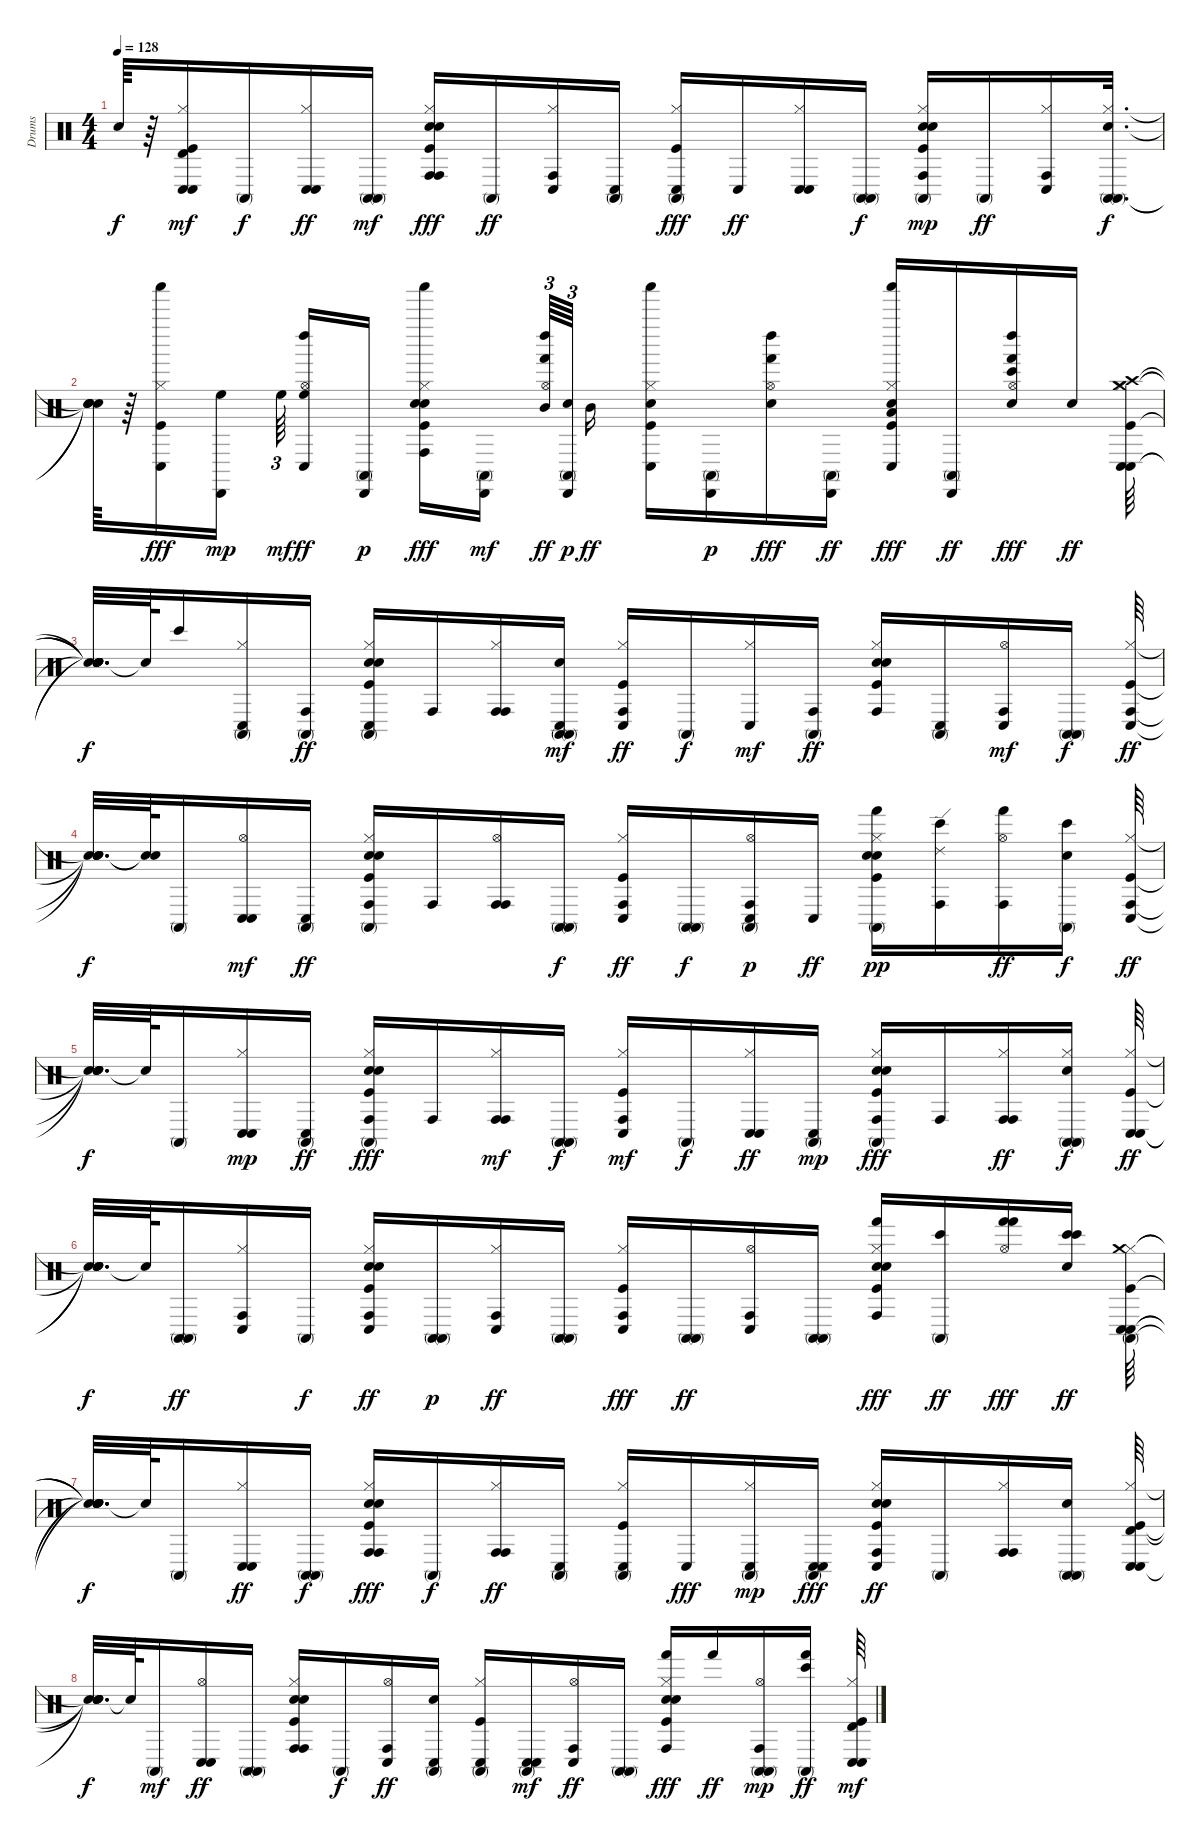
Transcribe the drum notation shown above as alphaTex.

\track ("Drums" "Drums") {instrument percussion}
\staff {score}
\articulation defaults
\ts (4 4)
\tempo 128
\clef neutral
\ks c "Snare (hit)"{t}.64{dy f}
r.64 ("Kick (hit)" "Hi-Hat (closed)" "Conga low (hit)" "Conga low (hit)" "Timbale high (hit)").16{dy mf} "Conga high (mute)".16{dy f} ("Hi-Hat (closed)" "Conga low (hit)" "Conga low (hit)").16{dy ff} ("Conga high (mute)" "Conga high (mute)").16{dy mf} ("Kick (hit)" "Snare (hit) 2" "Hand Clap (hit)" "Hi-Hat (closed)" "Conga high (hit)" "Conga high (hit)").16{dy fff} "Conga high (mute)".16{dy ff} ("Hi-Hat (closed)" "Conga low (hit)" "Conga high (hit)").16 ("Conga low (hit)" "Conga high (mute)").16 ("Kick (hit)" "Hi-Hat (closed)" "Conga high (mute)" "Conga low (hit)").16{dy fff} "Conga low (hit)".16{dy ff} ("Hi-Hat (closed)" "Conga low (hit)" "Conga low (hit)").16 ("Conga high (mute)" "Conga high (mute)").16{dy f} ("Kick (hit)" "Snare (hit) 2" "Hand Clap (hit)" "Hi-Hat (closed)" "Conga high (hit)" "Conga high (mute)").16{dy mp} "Conga high (mute)".16{dy ff} ("Hi-Hat (closed)" "Conga low (hit)" "Conga high (hit)").16 ("Snare (hit) 2" "Hi-Hat (closed)" "Conga high (mute)" "Conga high (mute)").32{d dy f} |
("Snare (hit)"{t} "Snare (hit)"{t} "Snare (hit)"{t} "Snare (hit)"{t}).64 r.64 ("Kick (hit)" "Hi-Hat (closed)" "Shaker (hit)" "Conga low (hit)").16{dy fff} ("Cabasa (hit)" "High Floor Tom (hit)").16{dy mp} "High Floor Tom (hit)".64{tu (3 2) dy mf} ("Hi-Hat (open)" "Left Maraca (hit)" "High Floor Tom (hit)" "Conga low (hit)").16{dy ff} ("Cabasa (hit)" "Conga high (mute)").16{dy p} ("Kick (hit)" "Snare (hit) 2" "Hand Clap (hit)" "Hi-Hat (closed)" "Shaker (hit)" "Conga high (hit)").16{dy fff} ("Cabasa (hit)" "Conga high (mute)").16{dy mf} ("Hi-Hat (open)" "Left Maraca (hit)" "Hand (hit)" "Mid Tom (hit)").64{tu (3 2) dy ff} ("Snare (hit) 2" "Cabasa (hit)" "Conga high (mute)").64{tu (3 2) dy p} "Mid Tom (hit)".16{dy ff} ("Kick (hit)" "Snare (hit) 2" "Hi-Hat (closed)" "Shaker (hit)" "Conga low (hit)").16 ("Cabasa (hit)" "Conga high (mute)").16{dy p} ("Snare (hit) 2" "Hi-Hat (open)" "Left Maraca (hit)" "Hand (hit)").16{dy fff} ("Cabasa (hit)" "Conga high (mute)").16{dy ff} ("Low Tom (hit)" "Kick (hit)" "Hand Clap (hit)" "Hi-Hat (closed)" "Shaker (hit)" "Conga low (hit)").16{dy fff} ("Cabasa (hit)" "Conga high (mute)").16{dy ff} ("Snare (hit) 2" "Hi-Hat (open)" "Left Maraca (hit)" "Hand (hit)" "Bongo High (hit)").16{dy fff} "Snare (hit) 2".16{dy ff} ("Kick (hit)" "Hi-Hat (closed)" "Crash high (hit)" "Crash medium (hit)" "Conga low (hit)" "Conga low (hit)").64 |
("Snare (hit)"{t} "Snare (hit)"{t} "Snare (hit)"{t} "Snare (hit)"{t} "Snare (hit)"{t} "Snare (hit)"{t}).32{d dy f} "Snare (hit)"{t}.64 "Bongo High (hit)".16 ("Hi-Hat (closed)" "Conga high (mute)" "Conga low (hit)").16 ("Conga high (hit)" "Conga high (mute)").16{dy ff} ("Kick (hit)" "Snare (hit) 2" "Hand Clap (hit)" "Hi-Hat (closed)" "Conga high (mute)" "Conga low (hit)").16 "Conga high (hit)".16 ("Hi-Hat (closed)" "Conga high (hit)" "Conga high (hit)").16 ("Snare (hit) 2" "Conga high (mute)" "Conga high (mute)" "Conga low (hit)").16{dy mf} ("Kick (hit)" "Hi-Hat (closed)" "Conga high (hit)" "Conga low (hit)").16{dy ff} "Conga high (mute)".16{dy f} ("Hi-Hat (closed)" "Conga low (hit)").16{dy mf} ("Conga high (hit)" "Conga high (mute)").16{dy ff} ("Kick (hit)" "Snare (hit) 2" "Hand Clap (hit)" "Hi-Hat (closed)" "Conga high (hit)").16 ("Conga high (mute)" "Conga low (hit)").16 ("Hi-Hat (open)" "Conga low (hit)" "Conga high (hit)").16{dy mf} ("Conga high (mute)" "Conga high (mute)").16{dy f} ("Kick (hit)" "Hi-Hat (closed)" "Conga high (hit)" "Conga low (hit)").64{dy ff} |
("Snare (hit)"{t} "Snare (hit)"{t} "Snare (hit)"{t} "Snare (hit)"{t}).32{d dy f} ("Snare (hit)"{t} "Snare (hit)"{t}).64 "Conga high (mute)".16 ("Hi-Hat (open)" "Conga low (hit)" "Conga low (hit)").16{dy mf} ("Conga low (hit)" "Conga high (mute)").16{dy ff} ("Kick (hit)" "Snare (hit) 2" "Hand Clap (hit)" "Hi-Hat (closed)" "Conga high (mute)" "Conga high (hit)").16 "Conga high (hit)".16 ("Hi-Hat (open)" "Conga high (hit)" "Conga high (hit)").16 ("Conga high (mute)" "Conga high (mute)").16{dy f} ("Kick (hit)" "Hi-Hat (closed)" "Conga high (hit)" "Conga low (hit)").16{dy ff} ("Conga high (mute)" "Conga high (mute)").16{dy f} ("Hi-Hat (open)" "Conga low (hit)" "Conga high (hit)" "Conga high (mute)").16{dy p} "Conga low (hit)".16{dy ff} ("Kick (hit)" "Snare (hit) 2" "Hand Clap (hit)" "Hi-Hat (closed)" "Conga high (mute)" "Hand (hit)").16{dy pp} ("Conga high (hit)" "Bongo High (hit)" "Ride (edge) 2").16 ("Hi-Hat (open)" "Conga high (hit)" "Hand (hit)").16{dy ff} ("Snare (hit) 2" "Conga high (mute)" "Bongo High (hit)").16{dy f} ("Kick (hit)" "Hi-Hat (closed)" "Conga high (hit)" "Conga low (hit)").64{dy ff} |
("Snare (hit)"{t} "Snare (hit)"{t} "Snare (hit)"{t} "Snare (hit)"{t}).32{d dy f} "Snare (hit)"{t}.64 "Conga high (mute)".16 ("Hi-Hat (closed)" "Conga low (hit)" "Conga low (hit)").16{dy mp} ("Conga low (hit)" "Conga high (mute)").16{dy ff} ("Kick (hit)" "Snare (hit) 2" "Hand Clap (hit)" "Hi-Hat (closed)" "Conga high (mute)" "Conga high (hit)").16{dy fff} "Conga high (hit)".16 ("Hi-Hat (closed)" "Conga high (hit)" "Conga high (hit)").16{dy mf} ("Conga high (mute)" "Conga high (mute)").16{dy f} ("Kick (hit)" "Hi-Hat (closed)" "Conga high (hit)" "Conga low (hit)").16{dy mf} "Conga high (mute)".16{dy f} ("Hi-Hat (closed)" "Conga low (hit)" "Conga low (hit)").16{dy ff} ("Conga low (hit)" "Conga high (mute)").16{dy mp} ("Kick (hit)" "Snare (hit) 2" "Hand Clap (hit)" "Hi-Hat (closed)" "Conga high (mute)" "Conga high (hit)").16{dy fff} "Conga high (hit)".16 ("Hi-Hat (closed)" "Conga high (hit)" "Conga high (hit)").16{dy ff} ("Snare (hit) 2" "Hi-Hat (closed)" "Conga high (mute)" "Conga high (mute)").16{dy f} ("Kick (hit)" "Hi-Hat (closed)" "Conga low (hit)" "Conga low (hit)").64{dy ff} |
("Snare (hit)"{t} "Snare (hit)"{t} "Snare (hit)"{t} "Snare (hit)"{t}).32{d dy f} "Snare (hit)"{t}.64 ("Conga high (mute)" "Conga high (mute)").16{dy ff} ("Hi-Hat (closed)" "Conga high (hit)" "Conga low (hit)").16 "Conga high (mute)".16{dy f} ("Kick (hit)" "Snare (hit) 2" "Hand Clap (hit)" "Hi-Hat (closed)" "Conga low (hit)" "Conga high (hit)").16{dy ff} ("Conga high (mute)" "Conga high (mute)").16{dy p} ("Hi-Hat (closed)" "Conga high (hit)" "Conga low (hit)").16{dy ff} ("Conga high (mute)" "Conga high (mute)").16 ("Kick (hit)" "Hi-Hat (closed)" "Conga low (hit)" "Conga high (hit)").16{dy fff} ("Conga high (mute)" "Conga high (mute)").16{dy ff} ("Hi-Hat (open)" "Conga high (hit)" "Conga low (hit)").16 ("Conga high (mute)" "Conga high (mute)").16 ("Kick (hit)" "Snare (hit) 2" "Hand Clap (hit)" "Hi-Hat (closed)" "Hand (hit)" "Conga high (hit)").16{dy fff} ("Bongo High (hit)" "Conga high (mute)").16{dy ff} ("Hi-Hat (open)" "Hand (hit)" "Hand (hit)").16{dy fff} ("Snare (hit) 2" "Bongo High (hit)" "Bongo High (hit)").16{dy ff} ("Kick (hit)" "Hi-Hat (closed)" "Crash medium (hit)" "Conga low (hit)" "Conga low (hit)" "Conga high (mute)").64 |
("Snare (hit)"{t} "Snare (hit)"{t} "Snare (hit)"{t} "Snare (hit)"{t} "Snare (hit)"{t} "Snare (hit)"{t}).32{d dy f} "Snare (hit)"{t}.64 "Conga high (mute)".16 ("Hi-Hat (closed)" "Conga low (hit)" "Conga low (hit)").16{dy ff} ("Conga high (mute)" "Conga high (mute)").16{dy f} ("Kick (hit)" "Snare (hit) 2" "Hand Clap (hit)" "Hi-Hat (closed)" "Conga high (hit)" "Conga high (hit)").16{dy fff} "Conga high (mute)".16{dy f} ("Hi-Hat (closed)" "Conga high (hit)" "Conga high (hit)").16{dy ff} ("Conga low (hit)" "Conga high (mute)").16 ("Kick (hit)" "Hi-Hat (closed)" "Conga high (mute)" "Conga low (hit)").16 "Conga low (hit)".16{dy fff} ("Hi-Hat (closed)" "Conga high (mute)" "Conga low (hit)").16{dy mp} ("Conga low (hit)" "Conga high (mute)" "Conga low (hit)").16{dy fff} ("Kick (hit)" "Snare (hit) 2" "Hand Clap (hit)" "Hi-Hat (closed)" "Conga low (hit)" "Conga high (hit)").16{dy ff} "Conga high (mute)".16 ("Hi-Hat (closed)" "Conga high (hit)" "Conga high (hit)").16 ("Snare (hit) 2" "Conga high (mute)" "Conga high (mute)").16 ("Kick (hit)" "Hi-Hat (closed)" "Conga low (hit)" "Timbale high (hit)" "Conga low (hit)").64 |
("Snare (hit)"{t} "Snare (hit)"{t} "Snare (hit)"{t} "Snare (hit)"{t}).32{d dy f} "Snare (hit)"{t}.64 "Conga high (mute)".16{dy mf} ("Hi-Hat (open)" "Conga low (hit)" "Conga low (hit)").16{dy ff} ("Conga high (mute)" "Conga high (mute)").16 ("Kick (hit)" "Snare (hit) 2" "Hand Clap (hit)" "Hi-Hat (closed)" "Conga high (hit)" "Conga high (hit)").16 "Conga high (mute)".16{dy f} ("Hi-Hat (open)" "Conga low (hit)" "Conga high (hit)").16{dy ff} ("Snare (hit) 2" "Conga low (hit)" "Conga high (mute)").16 ("Kick (hit)" "Hi-Hat (closed)" "Conga high (mute)" "Conga low (hit)").16 ("Conga low (hit)" "Conga high (mute)" "Conga low (hit)").16{dy mf} ("Hi-Hat (open)" "Conga low (hit)" "Conga high (hit)").16{dy ff} ("Conga high (mute)" "Conga high (mute)").16 ("Kick (hit)" "Snare (hit) 2" "Hand Clap (hit)" "Hi-Hat (closed)" "Conga high (hit)" "Hand (hit)").16{dy fff} "Hand (hit)".16{dy ff} ("Hi-Hat (open)" "Conga high (mute)" "Conga high (hit)" "Conga high (mute)").16{dy mp} ("Conga high (mute)" "Hand (hit)" "Bongo High (hit)").16{dy ff} ("Kick (hit)" "Hi-Hat (closed)" "Conga low (hit)" "Conga low (hit)" "Timbale high (hit)").64{dy mf}
